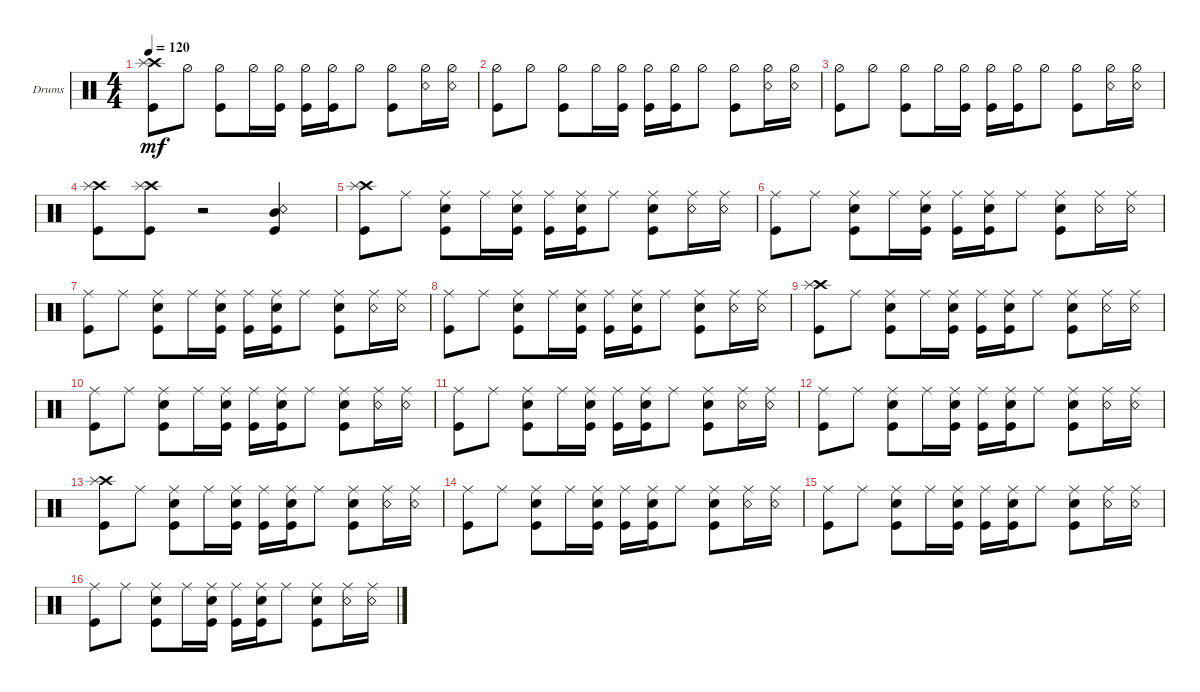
\defaultSystemsLayout 4
\bracketExtendMode groupsimilarinstruments
\firstSystemTrackNameOrientation horizontal
\otherSystemsTrackNameOrientation horizontal
\track ("Нюта" "Drums") {instrument percussion}
\staff {score}
\articulation defaults
\ts (4 4)
\tempo 120
\clef neutral
\ks c
("Crash high (hit)" "Kick (hit)" "Splash (hit)").8{dy mf} "Hi-Hat (half)".8 ("Kick (hit)" "Hi-Hat (half)").8 "Hi-Hat (half)".16 ("Kick (hit)" "Hi-Hat (half)").16 ("Kick (hit)" "Hi-Hat (half)").16 ("Kick (hit)" "Hi-Hat (half)").16 "Hi-Hat (half)".8 ("Kick (hit)" "Hi-Hat (half)").8 ("Snare (rim shot)" "Hi-Hat (half)").16 ("Snare (rim shot)" "Hi-Hat (half)").16 |
("Kick (hit)" "Hi-Hat (half)").8 "Hi-Hat (half)".8 ("Kick (hit)" "Hi-Hat (half)").8 "Hi-Hat (half)".16 ("Kick (hit)" "Hi-Hat (half)").16 ("Kick (hit)" "Hi-Hat (half)").16 ("Kick (hit)" "Hi-Hat (half)").16 "Hi-Hat (half)".8 ("Kick (hit)" "Hi-Hat (half)").8 ("Snare (rim shot)" "Hi-Hat (half)").16 ("Snare (rim shot)" "Hi-Hat (half)").16 |
("Kick (hit)" "Hi-Hat (half)").8 "Hi-Hat (half)".8 ("Kick (hit)" "Hi-Hat (half)").8 "Hi-Hat (half)".16 ("Kick (hit)" "Hi-Hat (half)").16 ("Kick (hit)" "Hi-Hat (half)").16 ("Kick (hit)" "Hi-Hat (half)").16 "Hi-Hat (half)".8 ("Kick (hit)" "Hi-Hat (half)").8 ("Snare (rim shot)" "Hi-Hat (half)").16 ("Snare (rim shot)" "Hi-Hat (half)").16 |
("Kick (hit)" "Crash high (hit)" "Splash (hit)").8 ("Kick (hit)" "Crash high (hit)" "Splash (hit)").8 r.2 ("Mid Tom (hit)" "Kick (hit)" "Snare (rim shot)").4 |
("Crash high (hit)" "Kick (hit)" "Splash (hit)").8 "Ride (middle)".8 ("Ride (middle)" "Kick (hit)" "Snare (hit) 2").8 "Ride (middle)".16 ("Ride (middle)" "Kick (hit)" "Snare (hit) 2").16 ("Ride (middle)" "Kick (hit)").16 ("Ride (middle)" "Kick (hit)" "Snare (hit) 2").16 "Ride (middle)".8 ("Snare (hit) 2" "Ride (middle)" "Kick (hit)").8 ("Snare (rim shot)" "Ride (middle)").16 ("Snare (rim shot)" "Ride (middle)").16 |
("Kick (hit)" "Ride (middle)").8 "Ride (middle)".8 ("Ride (middle)" "Kick (hit)" "Snare (hit) 2").8 "Ride (middle)".16 ("Ride (middle)" "Kick (hit)" "Snare (hit) 2").16 ("Ride (middle)" "Kick (hit)").16 ("Ride (middle)" "Kick (hit)" "Snare (hit) 2").16 "Ride (middle)".8 ("Snare (hit) 2" "Ride (middle)" "Kick (hit)").8 ("Snare (rim shot)" "Ride (middle)").16 ("Snare (rim shot)" "Ride (middle)").16 |
("Kick (hit)" "Ride (middle)").8 "Ride (middle)".8 ("Ride (middle)" "Kick (hit)" "Snare (hit) 2").8 "Ride (middle)".16 ("Ride (middle)" "Kick (hit)" "Snare (hit) 2").16 ("Ride (middle)" "Kick (hit)").16 ("Ride (middle)" "Kick (hit)" "Snare (hit) 2").16 "Ride (middle)".8 ("Snare (hit) 2" "Ride (middle)" "Kick (hit)").8 ("Snare (rim shot)" "Ride (middle)").16 ("Snare (rim shot)" "Ride (middle)").16 |
("Kick (hit)" "Ride (middle)").8 "Ride (middle)".8 ("Ride (middle)" "Kick (hit)" "Snare (hit) 2").8 "Ride (middle)".16 ("Ride (middle)" "Kick (hit)" "Snare (hit) 2").16 ("Ride (middle)" "Kick (hit)").16 ("Ride (middle)" "Kick (hit)" "Snare (hit) 2").16 "Ride (middle)".8 ("Snare (hit) 2" "Ride (middle)" "Kick (hit)").8 ("Snare (rim shot)" "Ride (middle)").16 ("Snare (rim shot)" "Ride (middle)").16 |
("Crash high (hit)" "Kick (hit)" "Splash (hit)").8 "Ride (middle)".8 ("Ride (middle)" "Kick (hit)" "Snare (hit) 2").8 "Ride (middle)".16 ("Ride (middle)" "Kick (hit)" "Snare (hit) 2").16 ("Ride (middle)" "Kick (hit)").16 ("Ride (middle)" "Kick (hit)" "Snare (hit) 2").16 "Ride (middle)".8 ("Snare (hit) 2" "Ride (middle)" "Kick (hit)").8 ("Snare (rim shot)" "Ride (middle)").16 ("Snare (rim shot)" "Ride (middle)").16 |
("Kick (hit)" "Ride (middle)").8 "Ride (middle)".8 ("Ride (middle)" "Kick (hit)" "Snare (hit) 2").8 "Ride (middle)".16 ("Ride (middle)" "Kick (hit)" "Snare (hit) 2").16 ("Ride (middle)" "Kick (hit)").16 ("Ride (middle)" "Kick (hit)" "Snare (hit) 2").16 "Ride (middle)".8 ("Snare (hit) 2" "Ride (middle)" "Kick (hit)").8 ("Snare (rim shot)" "Ride (middle)").16 ("Snare (rim shot)" "Ride (middle)").16 |
("Kick (hit)" "Ride (middle)").8 "Ride (middle)".8 ("Ride (middle)" "Kick (hit)" "Snare (hit) 2").8 "Ride (middle)".16 ("Ride (middle)" "Kick (hit)" "Snare (hit) 2").16 ("Ride (middle)" "Kick (hit)").16 ("Ride (middle)" "Kick (hit)" "Snare (hit) 2").16 "Ride (middle)".8 ("Snare (hit) 2" "Ride (middle)" "Kick (hit)").8 ("Snare (rim shot)" "Ride (middle)").16 ("Snare (rim shot)" "Ride (middle)").16 |
("Kick (hit)" "Ride (middle)").8 "Ride (middle)".8 ("Ride (middle)" "Kick (hit)" "Snare (hit) 2").8 "Ride (middle)".16 ("Ride (middle)" "Kick (hit)" "Snare (hit) 2").16 ("Ride (middle)" "Kick (hit)").16 ("Ride (middle)" "Kick (hit)" "Snare (hit) 2").16 "Ride (middle)".8 ("Snare (hit) 2" "Ride (middle)" "Kick (hit)").8 ("Snare (rim shot)" "Ride (middle)").16 ("Snare (rim shot)" "Ride (middle)").16 |
("Crash high (hit)" "Kick (hit)" "Splash (hit)").8 "Ride (middle)".8 ("Ride (middle)" "Kick (hit)" "Snare (hit) 2").8 "Ride (middle)".16 ("Ride (middle)" "Kick (hit)" "Snare (hit) 2").16 ("Ride (middle)" "Kick (hit)").16 ("Ride (middle)" "Kick (hit)" "Snare (hit) 2").16 "Ride (middle)".8 ("Snare (hit) 2" "Ride (middle)" "Kick (hit)").8 ("Snare (rim shot)" "Ride (middle)").16 ("Snare (rim shot)" "Ride (middle)").16 |
("Kick (hit)" "Ride (middle)").8 "Ride (middle)".8 ("Ride (middle)" "Kick (hit)" "Snare (hit) 2").8 "Ride (middle)".16 ("Ride (middle)" "Kick (hit)" "Snare (hit) 2").16 ("Ride (middle)" "Kick (hit)").16 ("Ride (middle)" "Kick (hit)" "Snare (hit) 2").16 "Ride (middle)".8 ("Snare (hit) 2" "Ride (middle)" "Kick (hit)").8 ("Snare (rim shot)" "Ride (middle)").16 ("Snare (rim shot)" "Ride (middle)").16 |
("Kick (hit)" "Ride (middle)").8 "Ride (middle)".8 ("Ride (middle)" "Kick (hit)" "Snare (hit) 2").8 "Ride (middle)".16 ("Ride (middle)" "Kick (hit)" "Snare (hit) 2").16 ("Ride (middle)" "Kick (hit)").16 ("Ride (middle)" "Kick (hit)" "Snare (hit) 2").16 "Ride (middle)".8 ("Snare (hit) 2" "Ride (middle)" "Kick (hit)").8 ("Snare (rim shot)" "Ride (middle)").16 ("Snare (rim shot)" "Ride (middle)").16 |
("Kick (hit)" "Ride (middle)").8 "Ride (middle)".8 ("Ride (middle)" "Kick (hit)" "Snare (hit) 2").8 "Ride (middle)".16 ("Ride (middle)" "Kick (hit)" "Snare (hit) 2").16 ("Ride (middle)" "Kick (hit)").16 ("Ride (middle)" "Kick (hit)" "Snare (hit) 2").16 "Ride (middle)".8 ("Snare (hit) 2" "Ride (middle)" "Kick (hit)").8 ("Snare (rim shot)" "Ride (middle)").16 ("Snare (rim shot)" "Ride (middle)").16
